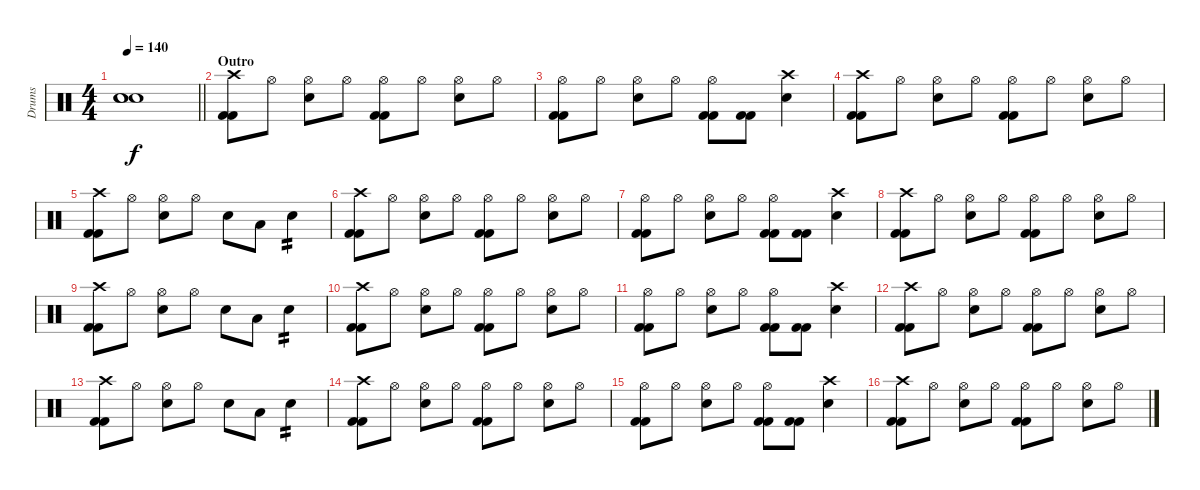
\track ("Drums" "Drums") {instrument percussion}
\staff {score}
\articulation defaults
\ts (4 4)
\tempo 140
\clef neutral
\barLineRight lightlight
\ks c
("Snare (hit)"{t} "Snare (hit)"{t} "Snare (hit)"{t}).1{dy f} |
\section ("" "Outro")
("Crash high (hit)" "Kick (hit) 2" "Kick (hit) 2").8 "Hi-Hat (open)".8 ("Electric Snare (hit)" "Hi-Hat (open)").8 "Hi-Hat (open)".8 ("Hi-Hat (open)" "Kick (hit) 2" "Kick (hit) 2").8 "Hi-Hat (open)".8 ("Electric Snare (hit)" "Hi-Hat (open)").8 "Hi-Hat (open)".8 |
("Hi-Hat (open)" "Kick (hit) 2" "Kick (hit) 2").8 "Hi-Hat (open)".8 ("Electric Snare (hit)" "Hi-Hat (open)").8 "Hi-Hat (open)".8 ("Hi-Hat (open)" "Kick (hit) 2" "Kick (hit) 2").8 ("Kick (hit) 2" "Kick (hit) 2").8 ("Electric Snare (hit)" "Crash high (hit)").4 |
("Crash high (hit)" "Kick (hit) 2" "Kick (hit) 2").8 "Hi-Hat (open)".8 ("Electric Snare (hit)" "Hi-Hat (open)").8 "Hi-Hat (open)".8 ("Hi-Hat (open)" "Kick (hit) 2" "Kick (hit) 2").8 "Hi-Hat (open)".8 ("Electric Snare (hit)" "Hi-Hat (open)").8 "Hi-Hat (open)".8 |
("Crash high (hit)" "Kick (hit) 2" "Kick (hit) 2").8 "Hi-Hat (open)".8 ("Electric Snare (hit)" "Hi-Hat (open)").8 "Hi-Hat (open)".8 "Electric Snare (hit)".8 "Low Tom (hit)".8 "Electric Snare (hit)".4{tp 2} |
("Crash high (hit)" "Kick (hit) 2" "Kick (hit) 2").8 "Hi-Hat (open)".8 ("Electric Snare (hit)" "Hi-Hat (open)").8 "Hi-Hat (open)".8 ("Hi-Hat (open)" "Kick (hit) 2" "Kick (hit) 2").8 "Hi-Hat (open)".8 ("Electric Snare (hit)" "Hi-Hat (open)").8 "Hi-Hat (open)".8 |
("Hi-Hat (open)" "Kick (hit) 2" "Kick (hit) 2").8 "Hi-Hat (open)".8 ("Electric Snare (hit)" "Hi-Hat (open)").8 "Hi-Hat (open)".8 ("Hi-Hat (open)" "Kick (hit) 2" "Kick (hit) 2").8 ("Kick (hit) 2" "Kick (hit) 2").8 ("Electric Snare (hit)" "Crash high (hit)").4 |
("Crash high (hit)" "Kick (hit) 2" "Kick (hit) 2").8 "Hi-Hat (open)".8 ("Electric Snare (hit)" "Hi-Hat (open)").8 "Hi-Hat (open)".8 ("Hi-Hat (open)" "Kick (hit) 2" "Kick (hit) 2").8 "Hi-Hat (open)".8 ("Electric Snare (hit)" "Hi-Hat (open)").8 "Hi-Hat (open)".8 |
("Crash high (hit)" "Kick (hit) 2" "Kick (hit) 2").8 "Hi-Hat (open)".8 ("Electric Snare (hit)" "Hi-Hat (open)").8 "Hi-Hat (open)".8 "Electric Snare (hit)".8 "Low Tom (hit)".8 "Electric Snare (hit)".4{tp 2} |
("Crash high (hit)" "Kick (hit) 2" "Kick (hit) 2").8 "Hi-Hat (open)".8 ("Electric Snare (hit)" "Hi-Hat (open)").8 "Hi-Hat (open)".8 ("Hi-Hat (open)" "Kick (hit) 2" "Kick (hit) 2").8 "Hi-Hat (open)".8 ("Electric Snare (hit)" "Hi-Hat (open)").8 "Hi-Hat (open)".8 |
("Hi-Hat (open)" "Kick (hit) 2" "Kick (hit) 2").8 "Hi-Hat (open)".8 ("Electric Snare (hit)" "Hi-Hat (open)").8 "Hi-Hat (open)".8 ("Hi-Hat (open)" "Kick (hit) 2" "Kick (hit) 2").8 ("Kick (hit) 2" "Kick (hit) 2").8 ("Electric Snare (hit)" "Crash high (hit)").4 |
("Crash high (hit)" "Kick (hit) 2" "Kick (hit) 2").8 "Hi-Hat (open)".8 ("Electric Snare (hit)" "Hi-Hat (open)").8 "Hi-Hat (open)".8 ("Hi-Hat (open)" "Kick (hit) 2" "Kick (hit) 2").8 "Hi-Hat (open)".8 ("Electric Snare (hit)" "Hi-Hat (open)").8 "Hi-Hat (open)".8 |
("Crash high (hit)" "Kick (hit) 2" "Kick (hit) 2").8 "Hi-Hat (open)".8 ("Electric Snare (hit)" "Hi-Hat (open)").8 "Hi-Hat (open)".8 "Electric Snare (hit)".8 "Low Tom (hit)".8 "Electric Snare (hit)".4{tp 2} |
("Crash high (hit)" "Kick (hit) 2" "Kick (hit) 2").8 "Hi-Hat (open)".8 ("Electric Snare (hit)" "Hi-Hat (open)").8 "Hi-Hat (open)".8 ("Hi-Hat (open)" "Kick (hit) 2" "Kick (hit) 2").8 "Hi-Hat (open)".8 ("Electric Snare (hit)" "Hi-Hat (open)").8 "Hi-Hat (open)".8 |
("Hi-Hat (open)" "Kick (hit) 2" "Kick (hit) 2").8 "Hi-Hat (open)".8 ("Electric Snare (hit)" "Hi-Hat (open)").8 "Hi-Hat (open)".8 ("Hi-Hat (open)" "Kick (hit) 2" "Kick (hit) 2").8 ("Kick (hit) 2" "Kick (hit) 2").8 ("Electric Snare (hit)" "Crash high (hit)").4 |
("Crash high (hit)" "Kick (hit) 2" "Kick (hit) 2").8 "Hi-Hat (open)".8 ("Electric Snare (hit)" "Hi-Hat (open)").8 "Hi-Hat (open)".8 ("Hi-Hat (open)" "Kick (hit) 2" "Kick (hit) 2").8 "Hi-Hat (open)".8 ("Electric Snare (hit)" "Hi-Hat (open)").8 "Hi-Hat (open)".8
